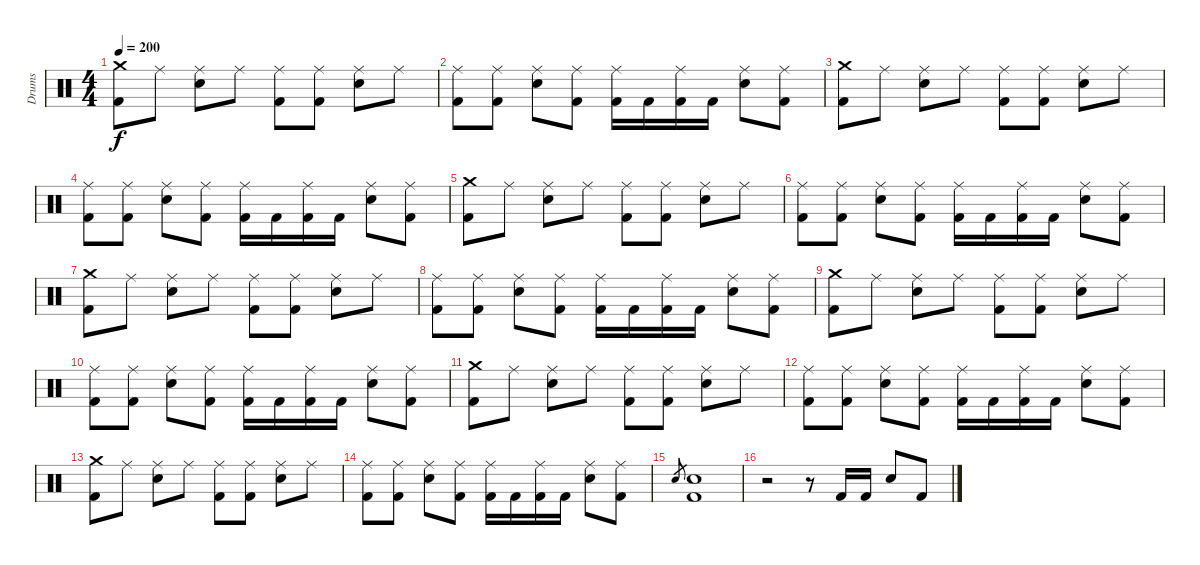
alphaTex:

\track ("Drums" "Drums") {instrument percussion}
\staff {score}
\articulation defaults
\ts (4 4)
\tempo 200
\clef neutral
\ks c
("Crash medium (hit)" "Kick (hit) 2").8{dy f} "Ride (middle)".8 ("Ride (middle)" "Snare (hit) 2").8 "Ride (middle)".8 ("Ride (middle)" "Kick (hit) 2").8 ("Ride (middle)" "Kick (hit) 2").8 ("Ride (middle)" "Snare (hit) 2").8 "Ride (middle)".8 |
("Ride (middle)" "Kick (hit) 2").8 ("Ride (middle)" "Kick (hit) 2").8 ("Ride (middle)" "Snare (hit) 2").8 ("Ride (middle)" "Kick (hit) 2").8 ("Ride (middle)" "Kick (hit) 2").16 "Kick (hit) 2".16 ("Ride (middle)" "Kick (hit) 2").16 "Kick (hit) 2".16 ("Ride (middle)" "Snare (hit) 2").8 ("Ride (middle)" "Kick (hit) 2").8 |
("Crash medium (hit)" "Kick (hit) 2").8 "Ride (middle)".8 ("Ride (middle)" "Snare (hit) 2").8 "Ride (middle)".8 ("Ride (middle)" "Kick (hit) 2").8 ("Ride (middle)" "Kick (hit) 2").8 ("Ride (middle)" "Snare (hit) 2").8 "Ride (middle)".8 |
("Ride (middle)" "Kick (hit) 2").8 ("Ride (middle)" "Kick (hit) 2").8 ("Ride (middle)" "Snare (hit) 2").8 ("Ride (middle)" "Kick (hit) 2").8 ("Ride (middle)" "Kick (hit) 2").16 "Kick (hit) 2".16 ("Ride (middle)" "Kick (hit) 2").16 "Kick (hit) 2".16 ("Ride (middle)" "Snare (hit) 2").8 ("Ride (middle)" "Kick (hit) 2").8 |
("Crash medium (hit)" "Kick (hit) 2").8 "Ride (middle)".8 ("Ride (middle)" "Snare (hit) 2").8 "Ride (middle)".8 ("Ride (middle)" "Kick (hit) 2").8 ("Ride (middle)" "Kick (hit) 2").8 ("Ride (middle)" "Snare (hit) 2").8 "Ride (middle)".8 |
("Ride (middle)" "Kick (hit) 2").8 ("Ride (middle)" "Kick (hit) 2").8 ("Ride (middle)" "Snare (hit) 2").8 ("Ride (middle)" "Kick (hit) 2").8 ("Ride (middle)" "Kick (hit) 2").16 "Kick (hit) 2".16 ("Ride (middle)" "Kick (hit) 2").16 "Kick (hit) 2".16 ("Ride (middle)" "Snare (hit) 2").8 ("Ride (middle)" "Kick (hit) 2").8 |
("Crash medium (hit)" "Kick (hit) 2").8 "Ride (middle)".8 ("Ride (middle)" "Snare (hit) 2").8 "Ride (middle)".8 ("Ride (middle)" "Kick (hit) 2").8 ("Ride (middle)" "Kick (hit) 2").8 ("Ride (middle)" "Snare (hit) 2").8 "Ride (middle)".8 |
("Ride (middle)" "Kick (hit) 2").8 ("Ride (middle)" "Kick (hit) 2").8 ("Ride (middle)" "Snare (hit) 2").8 ("Ride (middle)" "Kick (hit) 2").8 ("Ride (middle)" "Kick (hit) 2").16 "Kick (hit) 2".16 ("Ride (middle)" "Kick (hit) 2").16 "Kick (hit) 2".16 ("Ride (middle)" "Snare (hit) 2").8 ("Ride (middle)" "Kick (hit) 2").8 |
("Crash medium (hit)" "Kick (hit) 2").8 "Ride (middle)".8 ("Ride (middle)" "Snare (hit) 2").8 "Ride (middle)".8 ("Ride (middle)" "Kick (hit) 2").8 ("Ride (middle)" "Kick (hit) 2").8 ("Ride (middle)" "Snare (hit) 2").8 "Ride (middle)".8 |
("Ride (middle)" "Kick (hit) 2").8 ("Ride (middle)" "Kick (hit) 2").8 ("Ride (middle)" "Snare (hit) 2").8 ("Ride (middle)" "Kick (hit) 2").8 ("Ride (middle)" "Kick (hit) 2").16 "Kick (hit) 2".16 ("Ride (middle)" "Kick (hit) 2").16 "Kick (hit) 2".16 ("Ride (middle)" "Snare (hit) 2").8 ("Ride (middle)" "Kick (hit) 2").8 |
("Crash medium (hit)" "Kick (hit) 2").8 "Ride (middle)".8 ("Ride (middle)" "Snare (hit) 2").8 "Ride (middle)".8 ("Ride (middle)" "Kick (hit) 2").8 ("Ride (middle)" "Kick (hit) 2").8 ("Ride (middle)" "Snare (hit) 2").8 "Ride (middle)".8 |
("Ride (middle)" "Kick (hit) 2").8 ("Ride (middle)" "Kick (hit) 2").8 ("Ride (middle)" "Snare (hit) 2").8 ("Ride (middle)" "Kick (hit) 2").8 ("Ride (middle)" "Kick (hit) 2").16 "Kick (hit) 2".16 ("Ride (middle)" "Kick (hit) 2").16 "Kick (hit) 2".16 ("Ride (middle)" "Snare (hit) 2").8 ("Ride (middle)" "Kick (hit) 2").8 |
("Crash medium (hit)" "Kick (hit) 2").8 "Ride (middle)".8 ("Ride (middle)" "Snare (hit) 2").8 "Ride (middle)".8 ("Ride (middle)" "Kick (hit) 2").8 ("Ride (middle)" "Kick (hit) 2").8 ("Ride (middle)" "Snare (hit) 2").8 "Ride (middle)".8 |
("Ride (middle)" "Kick (hit) 2").8 ("Ride (middle)" "Kick (hit) 2").8 ("Ride (middle)" "Snare (hit) 2").8 ("Ride (middle)" "Kick (hit) 2").8 ("Ride (middle)" "Kick (hit) 2").16 "Kick (hit) 2".16 ("Ride (middle)" "Kick (hit) 2").16 "Kick (hit) 2".16 ("Ride (middle)" "Snare (hit) 2").8 ("Ride (middle)" "Kick (hit) 2").8 |
"Snare (hit) 2".8{gr} ("Snare (hit) 2" "Kick (hit) 2").1 |
r.2 r.8 "Kick (hit) 2".16 "Kick (hit) 2".16 "Snare (hit) 2".8 "Kick (hit) 2".8
